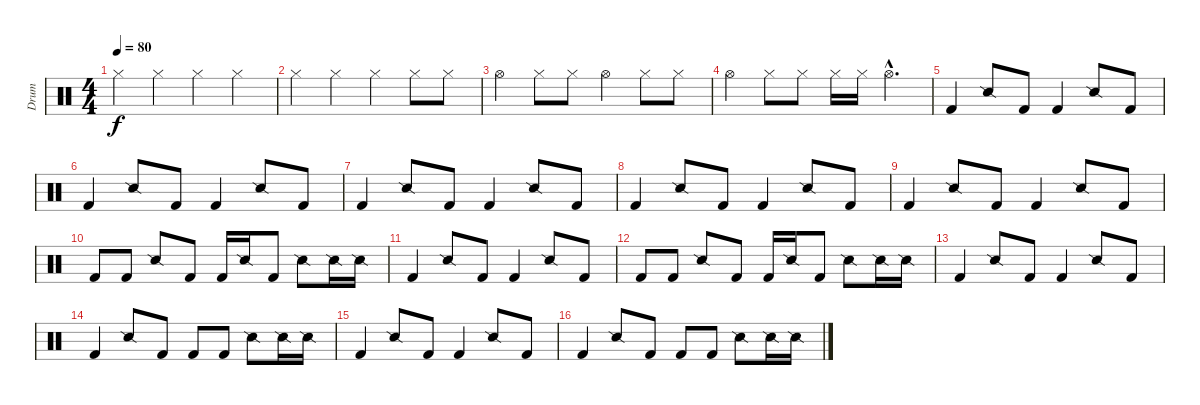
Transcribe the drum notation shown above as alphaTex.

\track ("Drum" "Drum") {instrument percussion}
\staff {score}
\articulation defaults
\ts (4 4)
\tempo 80
\clef neutral
\ks c "Hi-Hat (closed)".4{dy f} "Hi-Hat (closed)".4 "Hi-Hat (closed)".4 "Hi-Hat (closed)".4
|
"Hi-Hat (closed)".4 "Hi-Hat (closed)".4 "Hi-Hat (closed)".4 "Hi-Hat (closed)".8 "Hi-Hat (closed)".8 |
"Hi-Hat (open)".4 "Hi-Hat (closed)".8 "Hi-Hat (closed)".8 "Hi-Hat (open)".4 "Hi-Hat (closed)".8 "Hi-Hat (closed)".8 |
"Hi-Hat (open)".4 "Hi-Hat (closed)".8 "Hi-Hat (closed)".8 "Hi-Hat (closed)".16 "Hi-Hat (closed)".16 "Hi-Hat (open)"{hac}.4{d} |
"Kick (hit) 2".4 "Snare (side stick) 2".8 "Kick (hit) 2".8 "Kick (hit) 2".4 "Snare (side stick) 2".8 "Kick (hit) 2".8 |
"Kick (hit) 2".4 "Snare (side stick) 2".8 "Kick (hit) 2".8 "Kick (hit) 2".4 "Snare (side stick) 2".8 "Kick (hit) 2".8 |
"Kick (hit) 2".4 "Snare (side stick) 2".8 "Kick (hit) 2".8 "Kick (hit) 2".4 "Snare (side stick) 2".8 "Kick (hit) 2".8 |
"Kick (hit) 2".4 "Snare (side stick) 2".8 "Kick (hit) 2".8 "Kick (hit) 2".4 "Snare (side stick) 2".8 "Kick (hit) 2".8 |
"Kick (hit) 2".4 "Snare (side stick) 2".8 "Kick (hit) 2".8 "Kick (hit) 2".4 "Snare (side stick) 2".8 "Kick (hit) 2".8 |
"Kick (hit) 2".8 "Kick (hit) 2".8 "Snare (side stick) 2".8 "Kick (hit) 2".8 "Kick (hit) 2".16 "Snare (side stick) 2".16 "Kick (hit) 2".8 "Snare (side stick) 2".8 "Snare (side stick) 2".16 "Snare (side stick) 2".16 |
"Kick (hit) 2".4 "Snare (side stick) 2".8 "Kick (hit) 2".8 "Kick (hit) 2".4 "Snare (side stick) 2".8 "Kick (hit) 2".8 |
"Kick (hit) 2".8 "Kick (hit) 2".8 "Snare (side stick) 2".8 "Kick (hit) 2".8 "Kick (hit) 2".16 "Snare (side stick) 2".16 "Kick (hit) 2".8 "Snare (side stick) 2".8 "Snare (side stick) 2".16 "Snare (side stick) 2".16 |
"Kick (hit) 2".4 "Snare (side stick) 2".8 "Kick (hit) 2".8 "Kick (hit) 2".4 "Snare (side stick) 2".8 "Kick (hit) 2".8 |
"Kick (hit) 2".4 "Snare (side stick) 2".8 "Kick (hit) 2".8 "Kick (hit) 2".8 "Kick (hit) 2".8 "Snare (side stick) 2".8 "Snare (side stick) 2".16 "Snare (side stick) 2".16 |
"Kick (hit) 2".4 "Snare (side stick) 2".8 "Kick (hit) 2".8 "Kick (hit) 2".4 "Snare (side stick) 2".8 "Kick (hit) 2".8 |
"Kick (hit) 2".4 "Snare (side stick) 2".8 "Kick (hit) 2".8 "Kick (hit) 2".8 "Kick (hit) 2".8 "Snare (side stick) 2".8 "Snare (side stick) 2".16 "Snare (side stick) 2".16
